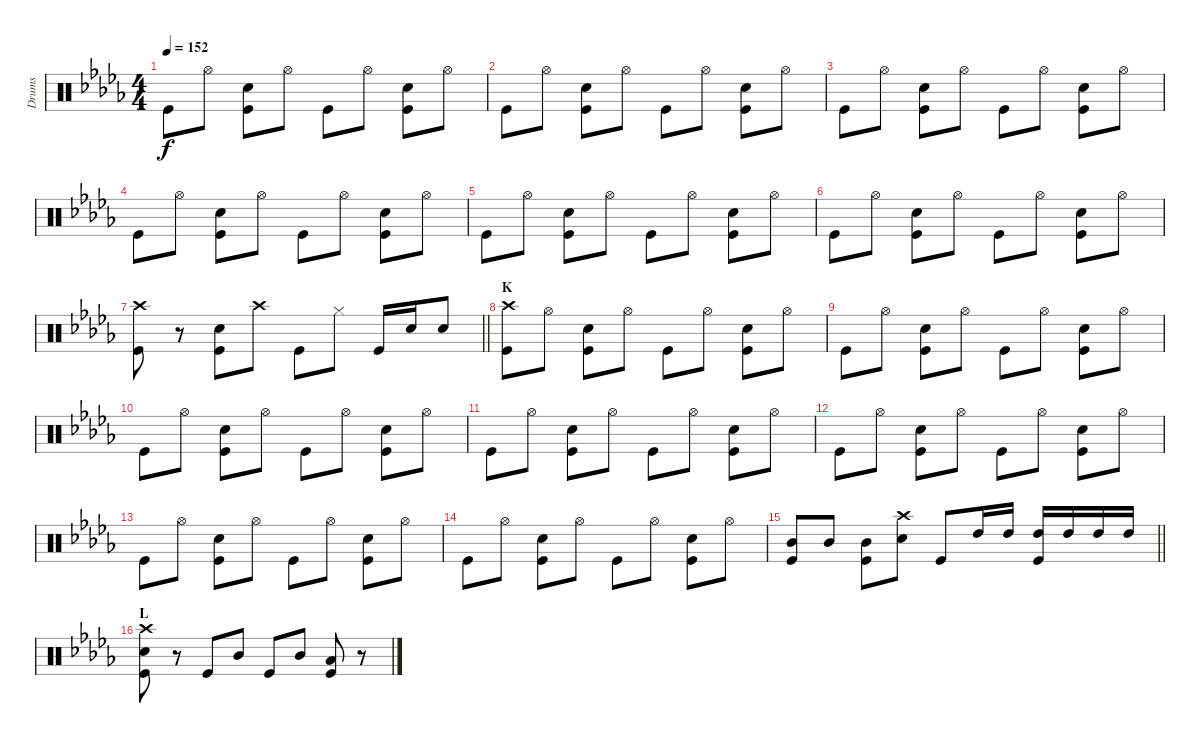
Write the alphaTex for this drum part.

\track ("Drums" "Drums") {instrument percussion}
\staff {score}
\articulation defaults
\ts (4 4)
\tempo 152
\clef neutral
\ks db "Kick (hit)".8{dy f} "Hi-Hat (open)".8
("Snare (hit) 2" "Kick (hit)").8 "Hi-Hat (open)".8 "Kick (hit)".8 "Hi-Hat (open)".8 ("Snare (hit) 2" "Kick (hit)").8 "Hi-Hat (open)".8 |
"Kick (hit)".8 "Hi-Hat (open)".8 ("Snare (hit) 2" "Kick (hit)").8 "Hi-Hat (open)".8 "Kick (hit)".8 "Hi-Hat (open)".8 ("Snare (hit) 2" "Kick (hit)").8 "Hi-Hat (open)".8 |
"Kick (hit)".8 "Hi-Hat (open)".8 ("Snare (hit) 2" "Kick (hit)").8 "Hi-Hat (open)".8 "Kick (hit)".8 "Hi-Hat (open)".8 ("Snare (hit) 2" "Kick (hit)").8 "Hi-Hat (open)".8 |
"Kick (hit)".8 "Hi-Hat (open)".8 ("Snare (hit) 2" "Kick (hit)").8 "Hi-Hat (open)".8 "Kick (hit)".8 "Hi-Hat (open)".8 ("Snare (hit) 2" "Kick (hit)").8 "Hi-Hat (open)".8 |
"Kick (hit)".8 "Hi-Hat (open)".8 ("Snare (hit) 2" "Kick (hit)").8 "Hi-Hat (open)".8 "Kick (hit)".8 "Hi-Hat (open)".8 ("Snare (hit) 2" "Kick (hit)").8 "Hi-Hat (open)".8 |
"Kick (hit)".8 "Hi-Hat (open)".8 ("Snare (hit) 2" "Kick (hit)").8 "Hi-Hat (open)".8 "Kick (hit)".8 "Hi-Hat (open)".8 ("Snare (hit) 2" "Kick (hit)").8 "Hi-Hat (open)".8 |
\barLineRight lightlight
("Crash high (hit)" "Kick (hit)").8 r.8 ("Snare (hit) 2" "Kick (hit)").8 "Crash high (hit)".8 "Kick (hit)".8 "Hi-Hat (closed)".8 "Kick (hit)".16 "Snare (hit) 2".16 "Snare (hit) 2".8 |
\section ("" "K")
("Crash high (hit)" "Kick (hit)").8 "Hi-Hat (open)".8 ("Snare (hit) 2" "Kick (hit)").8 "Hi-Hat (open)".8 "Kick (hit)".8 "Hi-Hat (open)".8 ("Snare (hit) 2" "Kick (hit)").8 "Hi-Hat (open)".8 |
"Kick (hit)".8 "Hi-Hat (open)".8 ("Snare (hit) 2" "Kick (hit)").8 "Hi-Hat (open)".8 "Kick (hit)".8 "Hi-Hat (open)".8 ("Snare (hit) 2" "Kick (hit)").8 "Hi-Hat (open)".8 |
"Kick (hit)".8 "Hi-Hat (open)".8 ("Snare (hit) 2" "Kick (hit)").8 "Hi-Hat (open)".8 "Kick (hit)".8 "Hi-Hat (open)".8 ("Snare (hit) 2" "Kick (hit)").8 "Hi-Hat (open)".8 |
"Kick (hit)".8 "Hi-Hat (open)".8 ("Snare (hit) 2" "Kick (hit)").8 "Hi-Hat (open)".8 "Kick (hit)".8 "Hi-Hat (open)".8 ("Snare (hit) 2" "Kick (hit)").8 "Hi-Hat (open)".8 |
"Kick (hit)".8 "Hi-Hat (open)".8 ("Snare (hit) 2" "Kick (hit)").8 "Hi-Hat (open)".8 "Kick (hit)".8 "Hi-Hat (open)".8 ("Snare (hit) 2" "Kick (hit)").8 "Hi-Hat (open)".8 |
"Kick (hit)".8 "Hi-Hat (open)".8 ("Snare (hit) 2" "Kick (hit)").8 "Hi-Hat (open)".8 "Kick (hit)".8 "Hi-Hat (open)".8 ("Snare (hit) 2" "Kick (hit)").8 "Hi-Hat (open)".8 |
"Kick (hit)".8 "Hi-Hat (open)".8 ("Snare (hit) 2" "Kick (hit)").8 "Hi-Hat (open)".8 "Kick (hit)".8 "Hi-Hat (open)".8 ("Snare (hit) 2" "Kick (hit)").8 "Hi-Hat (open)".8 |
\barLineRight lightlight
("Mid Tom (hit)" "Kick (hit)").8 "Mid Tom (hit)".8 ("Mid Tom (hit)" "Kick (hit)").8 ("Crash high (hit)" "Snare (hit) 2").8 "Kick (hit)".8 "High Tom (hit)".16 "High Tom (hit)".16 ("High Tom (hit)" "Kick (hit)").16 "High Tom (hit)".16 "High Tom (hit)".16 "High Tom (hit)".16 |
\section ("" "L")
("Crash high (hit)" "Snare (hit) 2" "Kick (hit)").8 r.8 "Kick (hit)".8 "Mid Tom (hit)".8 "Kick (hit)".8 "Mid Tom (hit)".8 ("Low Tom (hit)" "Kick (hit)").8 r.8
